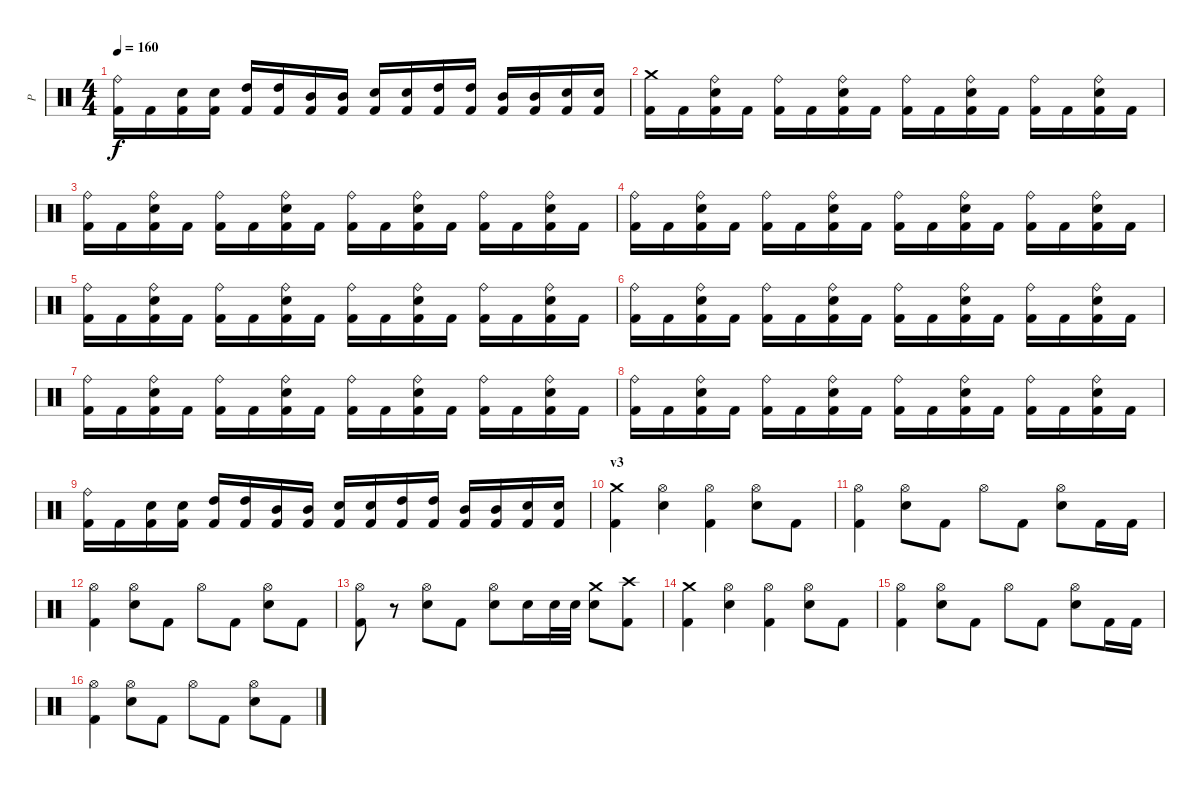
\track ("P" "P") {instrument percussion}
\staff {score}
\articulation defaults
\ts (4 4)
\tempo 160
\clef neutral
\ks c
("Ride (bell)" "Kick (hit) 2").16{dy f} "Kick (hit) 2".16 ("Electric Snare (hit)" "Kick (hit) 2").16 ("Electric Snare (hit)" "Kick (hit) 2").16 ("High Tom (hit)" "Kick (hit) 2").16 ("High Tom (hit)" "Kick (hit) 2").16 ("Mid Tom (hit)" "Kick (hit) 2").16 ("Mid Tom (hit)" "Kick (hit) 2").16 ("Electric Snare (hit)" "Kick (hit) 2").16 ("Electric Snare (hit)" "Kick (hit) 2").16 ("High Tom (hit)" "Kick (hit) 2").16 ("High Tom (hit)" "Kick (hit) 2").16 ("Mid Tom (hit)" "Kick (hit) 2").16 ("Mid Tom (hit)" "Kick (hit) 2").16 ("Electric Snare (hit)" "Kick (hit) 2").16 ("Electric Snare (hit)" "Kick (hit) 2").16 |
("Crash medium (hit)" "Kick (hit) 2").16 "Kick (hit) 2".16 ("Ride (bell)" "Electric Snare (hit)" "Kick (hit) 2").16 "Kick (hit) 2".16 ("Ride (bell)" "Kick (hit) 2").16 "Kick (hit) 2".16 ("Ride (bell)" "Electric Snare (hit)" "Kick (hit) 2").16 "Kick (hit) 2".16 ("Ride (bell)" "Kick (hit) 2").16 "Kick (hit) 2".16 ("Ride (bell)" "Electric Snare (hit)" "Kick (hit) 2").16 "Kick (hit) 2".16 ("Ride (bell)" "Kick (hit) 2").16 "Kick (hit) 2".16 ("Ride (bell)" "Electric Snare (hit)" "Kick (hit) 2").16 "Kick (hit) 2".16 |
("Ride (bell)" "Kick (hit) 2").16 "Kick (hit) 2".16 ("Ride (bell)" "Electric Snare (hit)" "Kick (hit) 2").16 "Kick (hit) 2".16 ("Ride (bell)" "Kick (hit) 2").16 "Kick (hit) 2".16 ("Ride (bell)" "Electric Snare (hit)" "Kick (hit) 2").16 "Kick (hit) 2".16 ("Ride (bell)" "Kick (hit) 2").16 "Kick (hit) 2".16 ("Ride (bell)" "Electric Snare (hit)" "Kick (hit) 2").16 "Kick (hit) 2".16 ("Ride (bell)" "Kick (hit) 2").16 "Kick (hit) 2".16 ("Ride (bell)" "Electric Snare (hit)" "Kick (hit) 2").16 "Kick (hit) 2".16 |
("Ride (bell)" "Kick (hit) 2").16 "Kick (hit) 2".16 ("Ride (bell)" "Electric Snare (hit)" "Kick (hit) 2").16 "Kick (hit) 2".16 ("Ride (bell)" "Kick (hit) 2").16 "Kick (hit) 2".16 ("Ride (bell)" "Electric Snare (hit)" "Kick (hit) 2").16 "Kick (hit) 2".16 ("Ride (bell)" "Kick (hit) 2").16 "Kick (hit) 2".16 ("Ride (bell)" "Electric Snare (hit)" "Kick (hit) 2").16 "Kick (hit) 2".16 ("Ride (bell)" "Kick (hit) 2").16 "Kick (hit) 2".16 ("Ride (bell)" "Electric Snare (hit)" "Kick (hit) 2").16 "Kick (hit) 2".16 |
("Ride (bell)" "Kick (hit) 2").16 "Kick (hit) 2".16 ("Ride (bell)" "Electric Snare (hit)" "Kick (hit) 2").16 "Kick (hit) 2".16 ("Ride (bell)" "Kick (hit) 2").16 "Kick (hit) 2".16 ("Ride (bell)" "Electric Snare (hit)" "Kick (hit) 2").16 "Kick (hit) 2".16 ("Ride (bell)" "Kick (hit) 2").16 "Kick (hit) 2".16 ("Ride (bell)" "Electric Snare (hit)" "Kick (hit) 2").16 "Kick (hit) 2".16 ("Ride (bell)" "Kick (hit) 2").16 "Kick (hit) 2".16 ("Ride (bell)" "Electric Snare (hit)" "Kick (hit) 2").16 "Kick (hit) 2".16 |
("Ride (bell)" "Kick (hit) 2").16 "Kick (hit) 2".16 ("Ride (bell)" "Electric Snare (hit)" "Kick (hit) 2").16 "Kick (hit) 2".16 ("Ride (bell)" "Kick (hit) 2").16 "Kick (hit) 2".16 ("Ride (bell)" "Electric Snare (hit)" "Kick (hit) 2").16 "Kick (hit) 2".16 ("Ride (bell)" "Kick (hit) 2").16 "Kick (hit) 2".16 ("Ride (bell)" "Electric Snare (hit)" "Kick (hit) 2").16 "Kick (hit) 2".16 ("Ride (bell)" "Kick (hit) 2").16 "Kick (hit) 2".16 ("Ride (bell)" "Electric Snare (hit)" "Kick (hit) 2").16 "Kick (hit) 2".16 |
("Ride (bell)" "Kick (hit) 2").16 "Kick (hit) 2".16 ("Ride (bell)" "Electric Snare (hit)" "Kick (hit) 2").16 "Kick (hit) 2".16 ("Ride (bell)" "Kick (hit) 2").16 "Kick (hit) 2".16 ("Ride (bell)" "Electric Snare (hit)" "Kick (hit) 2").16 "Kick (hit) 2".16 ("Ride (bell)" "Kick (hit) 2").16 "Kick (hit) 2".16 ("Ride (bell)" "Electric Snare (hit)" "Kick (hit) 2").16 "Kick (hit) 2".16 ("Ride (bell)" "Kick (hit) 2").16 "Kick (hit) 2".16 ("Ride (bell)" "Electric Snare (hit)" "Kick (hit) 2").16 "Kick (hit) 2".16 |
("Ride (bell)" "Kick (hit) 2").16 "Kick (hit) 2".16 ("Ride (bell)" "Electric Snare (hit)" "Kick (hit) 2").16 "Kick (hit) 2".16 ("Ride (bell)" "Kick (hit) 2").16 "Kick (hit) 2".16 ("Ride (bell)" "Electric Snare (hit)" "Kick (hit) 2").16 "Kick (hit) 2".16 ("Ride (bell)" "Kick (hit) 2").16 "Kick (hit) 2".16 ("Ride (bell)" "Electric Snare (hit)" "Kick (hit) 2").16 "Kick (hit) 2".16 ("Ride (bell)" "Kick (hit) 2").16 "Kick (hit) 2".16 ("Ride (bell)" "Electric Snare (hit)" "Kick (hit) 2").16 "Kick (hit) 2".16 |
("Ride (bell)" "Kick (hit) 2").16 "Kick (hit) 2".16 ("Electric Snare (hit)" "Kick (hit) 2").16 ("Electric Snare (hit)" "Kick (hit) 2").16 ("High Tom (hit)" "Kick (hit) 2").16 ("High Tom (hit)" "Kick (hit) 2").16 ("Mid Tom (hit)" "Kick (hit) 2").16 ("Mid Tom (hit)" "Kick (hit) 2").16 ("Electric Snare (hit)" "Kick (hit) 2").16 ("Electric Snare (hit)" "Kick (hit) 2").16 ("High Tom (hit)" "Kick (hit) 2").16 ("High Tom (hit)" "Kick (hit) 2").16 ("Mid Tom (hit)" "Kick (hit) 2").16 ("Mid Tom (hit)" "Kick (hit) 2").16 ("Electric Snare (hit)" "Kick (hit) 2").16 ("Electric Snare (hit)" "Kick (hit) 2").16 |
\section ("" "v3")
("Crash medium (hit)" "Kick (hit) 2").4 ("Hi-Hat (open)" "Electric Snare (hit)").4 ("Hi-Hat (open)" "Kick (hit) 2").4 ("Hi-Hat (open)" "Electric Snare (hit)").8 "Kick (hit) 2".8 |
("Hi-Hat (open)" "Kick (hit) 2").4 ("Hi-Hat (open)" "Electric Snare (hit)").8 "Kick (hit) 2".8 "Hi-Hat (open)".8 "Kick (hit) 2".8 ("Hi-Hat (open)" "Electric Snare (hit)").8 "Kick (hit) 2".16 "Kick (hit) 2".16 |
("Hi-Hat (open)" "Kick (hit) 2").4 ("Hi-Hat (open)" "Electric Snare (hit)").8 "Kick (hit) 2".8 "Hi-Hat (open)".8 "Kick (hit) 2".8 ("Hi-Hat (open)" "Electric Snare (hit)").8 "Kick (hit) 2".8 |
("Hi-Hat (open)" "Kick (hit) 2").8 r.8 ("Hi-Hat (open)" "Electric Snare (hit)").8 "Kick (hit) 2".8 ("Hi-Hat (open)" "Electric Snare (hit)").8 "Electric Snare (hit)".16 "Electric Snare (hit)".32 "Electric Snare (hit)".32 ("Crash medium (hit)" "Electric Snare (hit)").8 ("Crash high (hit)" "Kick (hit) 2").8 |
("Crash medium (hit)" "Kick (hit) 2").4 ("Hi-Hat (open)" "Electric Snare (hit)").4 ("Hi-Hat (open)" "Kick (hit) 2").4 ("Hi-Hat (open)" "Electric Snare (hit)").8 "Kick (hit) 2".8 |
("Hi-Hat (open)" "Kick (hit) 2").4 ("Hi-Hat (open)" "Electric Snare (hit)").8 "Kick (hit) 2".8 "Hi-Hat (open)".8 "Kick (hit) 2".8 ("Hi-Hat (open)" "Electric Snare (hit)").8 "Kick (hit) 2".16 "Kick (hit) 2".16 |
("Hi-Hat (open)" "Kick (hit) 2").4 ("Hi-Hat (open)" "Electric Snare (hit)").8 "Kick (hit) 2".8 "Hi-Hat (open)".8 "Kick (hit) 2".8 ("Hi-Hat (open)" "Electric Snare (hit)").8 "Kick (hit) 2".8
